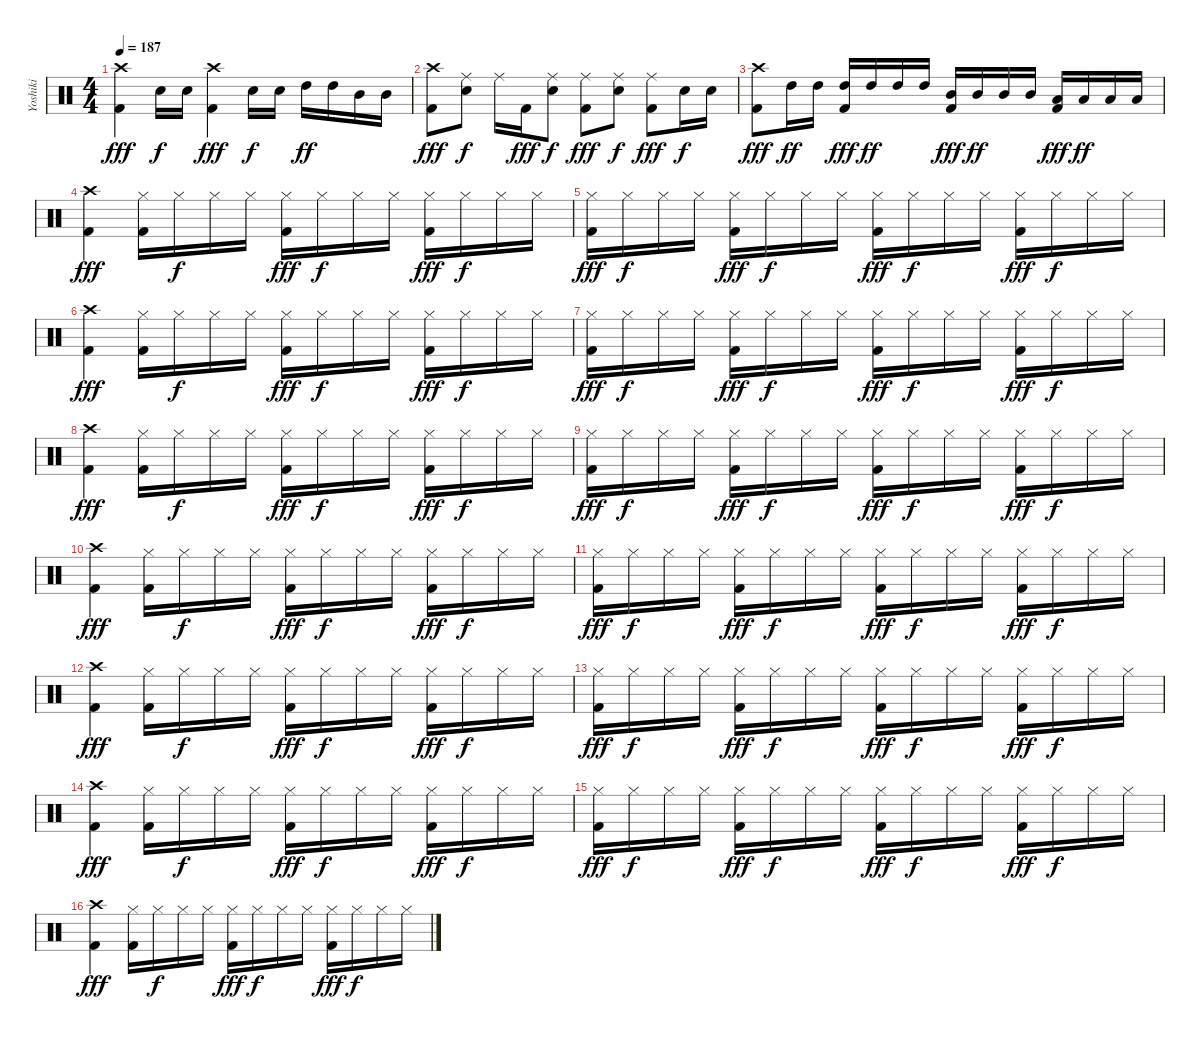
\track ("Yoshiki" "Yoshiki") {instrument percussion}
\staff {score}
\articulation defaults
\ts (4 4)
\tempo 187
\clef neutral
\ks c
("Crash high (hit)" "Kick (hit) 2").4{dy fff} "Electric Snare (hit)".16{dy f} "Electric Snare (hit)".16 ("Crash high (hit)" "Kick (hit) 2").4{dy fff} "Electric Snare (hit)".16{dy f} "Electric Snare (hit)".16 "High Tom (hit)".16{dy ff} "High Tom (hit)".16 "Mid Tom (hit)".16 "Mid Tom (hit)".16 |
("Crash high (hit)" "Kick (hit) 2").8{dy fff} ("Ride (middle)" "Electric Snare (hit)").8{dy f} "Ride (middle)".16 "Kick (hit) 2".16{dy fff} ("Ride (middle)" "Electric Snare (hit)").8{dy f} ("Ride (middle)" "Kick (hit) 2").8{dy fff} ("Ride (middle)" "Electric Snare (hit)").8{dy f} ("Ride (middle)" "Kick (hit) 2").8{dy fff} "Electric Snare (hit)".16{dy f} "Electric Snare (hit)".16 |
("Crash high (hit)" "Kick (hit) 2").8{dy fff} "High Tom (hit)".16{dy ff} "High Tom (hit)".16 ("High Tom (hit)" "Kick (hit) 2").16{dy fff} "High Tom (hit)".16{dy ff} "High Tom (hit)".16 "High Tom (hit)".16 ("Mid Tom (hit)" "Kick (hit) 2").16{dy fff} "Mid Tom (hit)".16{dy ff} "Mid Tom (hit)".16 "Mid Tom (hit)".16 ("Low Tom (hit)" "Kick (hit) 2").16{dy fff} "Low Tom (hit)".16{dy ff} "Low Tom (hit)".16 "Low Tom (hit)".16 |
("Crash high (hit)" "Kick (hit) 2").4{dy fff} ("Hi-Hat (closed)" "Kick (hit) 2").16 "Hi-Hat (closed)".16{dy f} "Hi-Hat (closed)".16 "Hi-Hat (closed)".16 ("Hi-Hat (closed)" "Kick (hit) 2").16{dy fff} "Hi-Hat (closed)".16{dy f} "Hi-Hat (closed)".16 "Hi-Hat (closed)".16 ("Hi-Hat (closed)" "Kick (hit) 2").16{dy fff} "Hi-Hat (closed)".16{dy f} "Hi-Hat (closed)".16 "Hi-Hat (closed)".16 |
("Hi-Hat (closed)" "Kick (hit) 2").16{dy fff} "Hi-Hat (closed)".16{dy f} "Hi-Hat (closed)".16 "Hi-Hat (closed)".16 ("Hi-Hat (closed)" "Kick (hit) 2").16{dy fff} "Hi-Hat (closed)".16{dy f} "Hi-Hat (closed)".16 "Hi-Hat (closed)".16 ("Hi-Hat (closed)" "Kick (hit) 2").16{dy fff} "Hi-Hat (closed)".16{dy f} "Hi-Hat (closed)".16 "Hi-Hat (closed)".16 ("Hi-Hat (closed)" "Kick (hit) 2").16{dy fff} "Hi-Hat (closed)".16{dy f} "Hi-Hat (closed)".16 "Hi-Hat (closed)".16 |
("Crash high (hit)" "Kick (hit) 2").4{dy fff} ("Hi-Hat (closed)" "Kick (hit) 2").16 "Hi-Hat (closed)".16{dy f} "Hi-Hat (closed)".16 "Hi-Hat (closed)".16 ("Hi-Hat (closed)" "Kick (hit) 2").16{dy fff} "Hi-Hat (closed)".16{dy f} "Hi-Hat (closed)".16 "Hi-Hat (closed)".16 ("Hi-Hat (closed)" "Kick (hit) 2").16{dy fff} "Hi-Hat (closed)".16{dy f} "Hi-Hat (closed)".16 "Hi-Hat (closed)".16 |
("Hi-Hat (closed)" "Kick (hit) 2").16{dy fff} "Hi-Hat (closed)".16{dy f} "Hi-Hat (closed)".16 "Hi-Hat (closed)".16 ("Hi-Hat (closed)" "Kick (hit) 2").16{dy fff} "Hi-Hat (closed)".16{dy f} "Hi-Hat (closed)".16 "Hi-Hat (closed)".16 ("Hi-Hat (closed)" "Kick (hit) 2").16{dy fff} "Hi-Hat (closed)".16{dy f} "Hi-Hat (closed)".16 "Hi-Hat (closed)".16 ("Hi-Hat (closed)" "Kick (hit) 2").16{dy fff} "Hi-Hat (closed)".16{dy f} "Hi-Hat (closed)".16 "Hi-Hat (closed)".16 |
("Crash high (hit)" "Kick (hit) 2").4{dy fff} ("Hi-Hat (closed)" "Kick (hit) 2").16 "Hi-Hat (closed)".16{dy f} "Hi-Hat (closed)".16 "Hi-Hat (closed)".16 ("Hi-Hat (closed)" "Kick (hit) 2").16{dy fff} "Hi-Hat (closed)".16{dy f} "Hi-Hat (closed)".16 "Hi-Hat (closed)".16 ("Hi-Hat (closed)" "Kick (hit) 2").16{dy fff} "Hi-Hat (closed)".16{dy f} "Hi-Hat (closed)".16 "Hi-Hat (closed)".16 |
("Hi-Hat (closed)" "Kick (hit) 2").16{dy fff} "Hi-Hat (closed)".16{dy f} "Hi-Hat (closed)".16 "Hi-Hat (closed)".16 ("Hi-Hat (closed)" "Kick (hit) 2").16{dy fff} "Hi-Hat (closed)".16{dy f} "Hi-Hat (closed)".16 "Hi-Hat (closed)".16 ("Hi-Hat (closed)" "Kick (hit) 2").16{dy fff} "Hi-Hat (closed)".16{dy f} "Hi-Hat (closed)".16 "Hi-Hat (closed)".16 ("Hi-Hat (closed)" "Kick (hit) 2").16{dy fff} "Hi-Hat (closed)".16{dy f} "Hi-Hat (closed)".16 "Hi-Hat (closed)".16 |
("Crash high (hit)" "Kick (hit) 2").4{dy fff} ("Hi-Hat (closed)" "Kick (hit) 2").16 "Hi-Hat (closed)".16{dy f} "Hi-Hat (closed)".16 "Hi-Hat (closed)".16 ("Hi-Hat (closed)" "Kick (hit) 2").16{dy fff} "Hi-Hat (closed)".16{dy f} "Hi-Hat (closed)".16 "Hi-Hat (closed)".16 ("Hi-Hat (closed)" "Kick (hit) 2").16{dy fff} "Hi-Hat (closed)".16{dy f} "Hi-Hat (closed)".16 "Hi-Hat (closed)".16 |
("Hi-Hat (closed)" "Kick (hit) 2").16{dy fff} "Hi-Hat (closed)".16{dy f} "Hi-Hat (closed)".16 "Hi-Hat (closed)".16 ("Hi-Hat (closed)" "Kick (hit) 2").16{dy fff} "Hi-Hat (closed)".16{dy f} "Hi-Hat (closed)".16 "Hi-Hat (closed)".16 ("Hi-Hat (closed)" "Kick (hit) 2").16{dy fff} "Hi-Hat (closed)".16{dy f} "Hi-Hat (closed)".16 "Hi-Hat (closed)".16 ("Hi-Hat (closed)" "Kick (hit) 2").16{dy fff} "Hi-Hat (closed)".16{dy f} "Hi-Hat (closed)".16 "Hi-Hat (closed)".16 |
("Crash high (hit)" "Kick (hit) 2").4{dy fff} ("Hi-Hat (closed)" "Kick (hit) 2").16 "Hi-Hat (closed)".16{dy f} "Hi-Hat (closed)".16 "Hi-Hat (closed)".16 ("Hi-Hat (closed)" "Kick (hit) 2").16{dy fff} "Hi-Hat (closed)".16{dy f} "Hi-Hat (closed)".16 "Hi-Hat (closed)".16 ("Hi-Hat (closed)" "Kick (hit) 2").16{dy fff} "Hi-Hat (closed)".16{dy f} "Hi-Hat (closed)".16 "Hi-Hat (closed)".16 |
("Hi-Hat (closed)" "Kick (hit) 2").16{dy fff} "Hi-Hat (closed)".16{dy f} "Hi-Hat (closed)".16 "Hi-Hat (closed)".16 ("Hi-Hat (closed)" "Kick (hit) 2").16{dy fff} "Hi-Hat (closed)".16{dy f} "Hi-Hat (closed)".16 "Hi-Hat (closed)".16 ("Hi-Hat (closed)" "Kick (hit) 2").16{dy fff} "Hi-Hat (closed)".16{dy f} "Hi-Hat (closed)".16 "Hi-Hat (closed)".16 ("Hi-Hat (closed)" "Kick (hit) 2").16{dy fff} "Hi-Hat (closed)".16{dy f} "Hi-Hat (closed)".16 "Hi-Hat (closed)".16 |
("Crash high (hit)" "Kick (hit) 2").4{dy fff} ("Hi-Hat (closed)" "Kick (hit) 2").16 "Hi-Hat (closed)".16{dy f} "Hi-Hat (closed)".16 "Hi-Hat (closed)".16 ("Hi-Hat (closed)" "Kick (hit) 2").16{dy fff} "Hi-Hat (closed)".16{dy f} "Hi-Hat (closed)".16 "Hi-Hat (closed)".16 ("Hi-Hat (closed)" "Kick (hit) 2").16{dy fff} "Hi-Hat (closed)".16{dy f} "Hi-Hat (closed)".16 "Hi-Hat (closed)".16 |
("Hi-Hat (closed)" "Kick (hit) 2").16{dy fff} "Hi-Hat (closed)".16{dy f} "Hi-Hat (closed)".16 "Hi-Hat (closed)".16 ("Hi-Hat (closed)" "Kick (hit) 2").16{dy fff} "Hi-Hat (closed)".16{dy f} "Hi-Hat (closed)".16 "Hi-Hat (closed)".16 ("Hi-Hat (closed)" "Kick (hit) 2").16{dy fff} "Hi-Hat (closed)".16{dy f} "Hi-Hat (closed)".16 "Hi-Hat (closed)".16 ("Hi-Hat (closed)" "Kick (hit) 2").16{dy fff} "Hi-Hat (closed)".16{dy f} "Hi-Hat (closed)".16 "Hi-Hat (closed)".16 |
("Crash high (hit)" "Kick (hit) 2").4{dy fff} ("Hi-Hat (closed)" "Kick (hit) 2").16 "Hi-Hat (closed)".16{dy f} "Hi-Hat (closed)".16 "Hi-Hat (closed)".16 ("Hi-Hat (closed)" "Kick (hit) 2").16{dy fff} "Hi-Hat (closed)".16{dy f} "Hi-Hat (closed)".16 "Hi-Hat (closed)".16 ("Hi-Hat (closed)" "Kick (hit) 2").16{dy fff} "Hi-Hat (closed)".16{dy f} "Hi-Hat (closed)".16 "Hi-Hat (closed)".16
